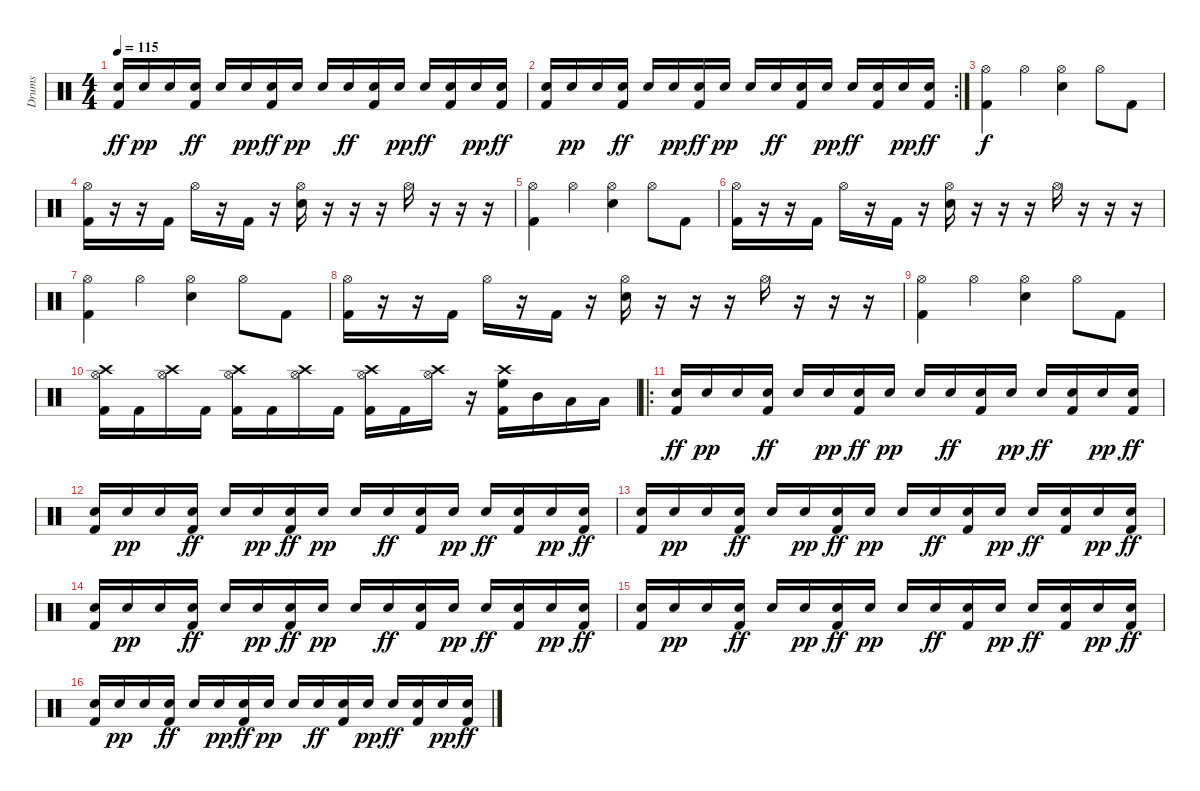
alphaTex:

\track ("Drums" "Drums") {instrument percussion}
\staff {score}
\articulation defaults
\ts (4 4)
\tempo 115
\clef neutral
\ks c
("Snare (hit) 2" "Kick (hit) 2").16{dy ff} "Snare (hit) 2".16{dy pp} "Snare (hit) 2".16 ("Snare (hit) 2" "Kick (hit) 2").16{dy ff} "Snare (hit) 2".16 "Snare (hit) 2".16{dy pp} ("Snare (hit) 2" "Kick (hit) 2").16{dy ff} "Snare (hit) 2".16{dy pp} "Snare (hit) 2".16 "Snare (hit) 2".16{dy ff} ("Snare (hit) 2" "Kick (hit) 2").16 "Snare (hit) 2".16{dy pp} "Snare (hit) 2".16{dy ff} ("Snare (hit) 2" "Kick (hit) 2").16 "Snare (hit) 2".16{dy pp} ("Snare (hit) 2" "Kick (hit) 2").16{dy ff} |
\rc 2
("Snare (hit) 2" "Kick (hit) 2").16 "Snare (hit) 2".16{dy pp} "Snare (hit) 2".16 ("Snare (hit) 2" "Kick (hit) 2").16{dy ff} "Snare (hit) 2".16 "Snare (hit) 2".16{dy pp} ("Snare (hit) 2" "Kick (hit) 2").16{dy ff} "Snare (hit) 2".16{dy pp} "Snare (hit) 2".16 "Snare (hit) 2".16{dy ff} ("Snare (hit) 2" "Kick (hit) 2").16 "Snare (hit) 2".16{dy pp} "Snare (hit) 2".16{dy ff} ("Snare (hit) 2" "Kick (hit) 2").16 "Snare (hit) 2".16{dy pp} ("Snare (hit) 2" "Kick (hit) 2").16{dy ff} |
("Hi-Hat (open)" "Kick (hit) 2").4{dy f} "Hi-Hat (open)".4 ("Hi-Hat (open)" "Snare (hit) 2").4 "Hi-Hat (open)".8 "Kick (hit) 2".8 |
("Hi-Hat (open)" "Kick (hit) 2").16 r.16 r.16 "Kick (hit) 2".16 "Hi-Hat (open)".16 r.16 "Kick (hit) 2".16 r.16 ("Hi-Hat (open)" "Snare (hit) 2").16 r.16 r.16 r.16 "Hi-Hat (open)".16 r.16 r.16 r.16 |
("Hi-Hat (open)" "Kick (hit) 2").4 "Hi-Hat (open)".4 ("Hi-Hat (open)" "Snare (hit) 2").4 "Hi-Hat (open)".8 "Kick (hit) 2".8 |
("Hi-Hat (open)" "Kick (hit) 2").16 r.16 r.16 "Kick (hit) 2".16 "Hi-Hat (open)".16 r.16 "Kick (hit) 2".16 r.16 ("Hi-Hat (open)" "Snare (hit) 2").16 r.16 r.16 r.16 "Hi-Hat (open)".16 r.16 r.16 r.16 |
("Hi-Hat (open)" "Kick (hit) 2").4 "Hi-Hat (open)".4 ("Hi-Hat (open)" "Snare (hit) 2").4 "Hi-Hat (open)".8 "Kick (hit) 2".8 |
("Hi-Hat (open)" "Kick (hit) 2").16 r.16 r.16 "Kick (hit) 2".16 "Hi-Hat (open)".16 r.16 "Kick (hit) 2".16 r.16 ("Hi-Hat (open)" "Snare (hit) 2").16 r.16 r.16 r.16 "Hi-Hat (open)".16 r.16 r.16 r.16 |
("Hi-Hat (open)" "Kick (hit) 2").4 "Hi-Hat (open)".4 ("Hi-Hat (open)" "Snare (hit) 2").4 "Hi-Hat (open)".8 "Kick (hit) 2".8 |
("Crash high (hit)" "Hi-Hat (open)" "Kick (hit) 2").16 "Kick (hit) 2".16 ("Crash high (hit)" "Hi-Hat (open)").16 "Kick (hit) 2".16 ("Crash high (hit)" "Hi-Hat (open)" "Kick (hit) 2").16 "Kick (hit) 2".16 ("Crash high (hit)" "Hi-Hat (open)").16 "Kick (hit) 2".16 ("Crash high (hit)" "Hi-Hat (open)" "Kick (hit) 2").16 "Kick (hit) 2".16 ("Crash high (hit)" "Hi-Hat (open)").16 r.16 ("Crash high (hit)" "High Floor Tom (hit)" "Kick (hit) 2").16 "Mid Tom (hit)".16 "Low Tom (hit)".16 "Low Floor Tom (hit)".16 |
\ro
("Snare (hit) 2" "Kick (hit) 2").16{dy ff} "Snare (hit) 2".16{dy pp} "Snare (hit) 2".16 ("Snare (hit) 2" "Kick (hit) 2").16{dy ff} "Snare (hit) 2".16 "Snare (hit) 2".16{dy pp} ("Snare (hit) 2" "Kick (hit) 2").16{dy ff} "Snare (hit) 2".16{dy pp} "Snare (hit) 2".16 "Snare (hit) 2".16{dy ff} ("Snare (hit) 2" "Kick (hit) 2").16 "Snare (hit) 2".16{dy pp} "Snare (hit) 2".16{dy ff} ("Snare (hit) 2" "Kick (hit) 2").16 "Snare (hit) 2".16{dy pp} ("Snare (hit) 2" "Kick (hit) 2").16{dy ff} |
("Snare (hit) 2" "Kick (hit) 2").16 "Snare (hit) 2".16{dy pp} "Snare (hit) 2".16 ("Snare (hit) 2" "Kick (hit) 2").16{dy ff} "Snare (hit) 2".16 "Snare (hit) 2".16{dy pp} ("Snare (hit) 2" "Kick (hit) 2").16{dy ff} "Snare (hit) 2".16{dy pp} "Snare (hit) 2".16 "Snare (hit) 2".16{dy ff} ("Snare (hit) 2" "Kick (hit) 2").16 "Snare (hit) 2".16{dy pp} "Snare (hit) 2".16{dy ff} ("Snare (hit) 2" "Kick (hit) 2").16 "Snare (hit) 2".16{dy pp} ("Snare (hit) 2" "Kick (hit) 2").16{dy ff} |
("Snare (hit) 2" "Kick (hit) 2").16 "Snare (hit) 2".16{dy pp} "Snare (hit) 2".16 ("Snare (hit) 2" "Kick (hit) 2").16{dy ff} "Snare (hit) 2".16 "Snare (hit) 2".16{dy pp} ("Snare (hit) 2" "Kick (hit) 2").16{dy ff} "Snare (hit) 2".16{dy pp} "Snare (hit) 2".16 "Snare (hit) 2".16{dy ff} ("Snare (hit) 2" "Kick (hit) 2").16 "Snare (hit) 2".16{dy pp} "Snare (hit) 2".16{dy ff} ("Snare (hit) 2" "Kick (hit) 2").16 "Snare (hit) 2".16{dy pp} ("Snare (hit) 2" "Kick (hit) 2").16{dy ff} |
("Snare (hit) 2" "Kick (hit) 2").16 "Snare (hit) 2".16{dy pp} "Snare (hit) 2".16 ("Snare (hit) 2" "Kick (hit) 2").16{dy ff} "Snare (hit) 2".16 "Snare (hit) 2".16{dy pp} ("Snare (hit) 2" "Kick (hit) 2").16{dy ff} "Snare (hit) 2".16{dy pp} "Snare (hit) 2".16 "Snare (hit) 2".16{dy ff} ("Snare (hit) 2" "Kick (hit) 2").16 "Snare (hit) 2".16{dy pp} "Snare (hit) 2".16{dy ff} ("Snare (hit) 2" "Kick (hit) 2").16 "Snare (hit) 2".16{dy pp} ("Snare (hit) 2" "Kick (hit) 2").16{dy ff} |
("Snare (hit) 2" "Kick (hit) 2").16 "Snare (hit) 2".16{dy pp} "Snare (hit) 2".16 ("Snare (hit) 2" "Kick (hit) 2").16{dy ff} "Snare (hit) 2".16 "Snare (hit) 2".16{dy pp} ("Snare (hit) 2" "Kick (hit) 2").16{dy ff} "Snare (hit) 2".16{dy pp} "Snare (hit) 2".16 "Snare (hit) 2".16{dy ff} ("Snare (hit) 2" "Kick (hit) 2").16 "Snare (hit) 2".16{dy pp} "Snare (hit) 2".16{dy ff} ("Snare (hit) 2" "Kick (hit) 2").16 "Snare (hit) 2".16{dy pp} ("Snare (hit) 2" "Kick (hit) 2").16{dy ff} |
("Snare (hit) 2" "Kick (hit) 2").16 "Snare (hit) 2".16{dy pp} "Snare (hit) 2".16 ("Snare (hit) 2" "Kick (hit) 2").16{dy ff} "Snare (hit) 2".16 "Snare (hit) 2".16{dy pp} ("Snare (hit) 2" "Kick (hit) 2").16{dy ff} "Snare (hit) 2".16{dy pp} "Snare (hit) 2".16 "Snare (hit) 2".16{dy ff} ("Snare (hit) 2" "Kick (hit) 2").16 "Snare (hit) 2".16{dy pp} "Snare (hit) 2".16{dy ff} ("Snare (hit) 2" "Kick (hit) 2").16 "Snare (hit) 2".16{dy pp} ("Snare (hit) 2" "Kick (hit) 2").16{dy ff}
